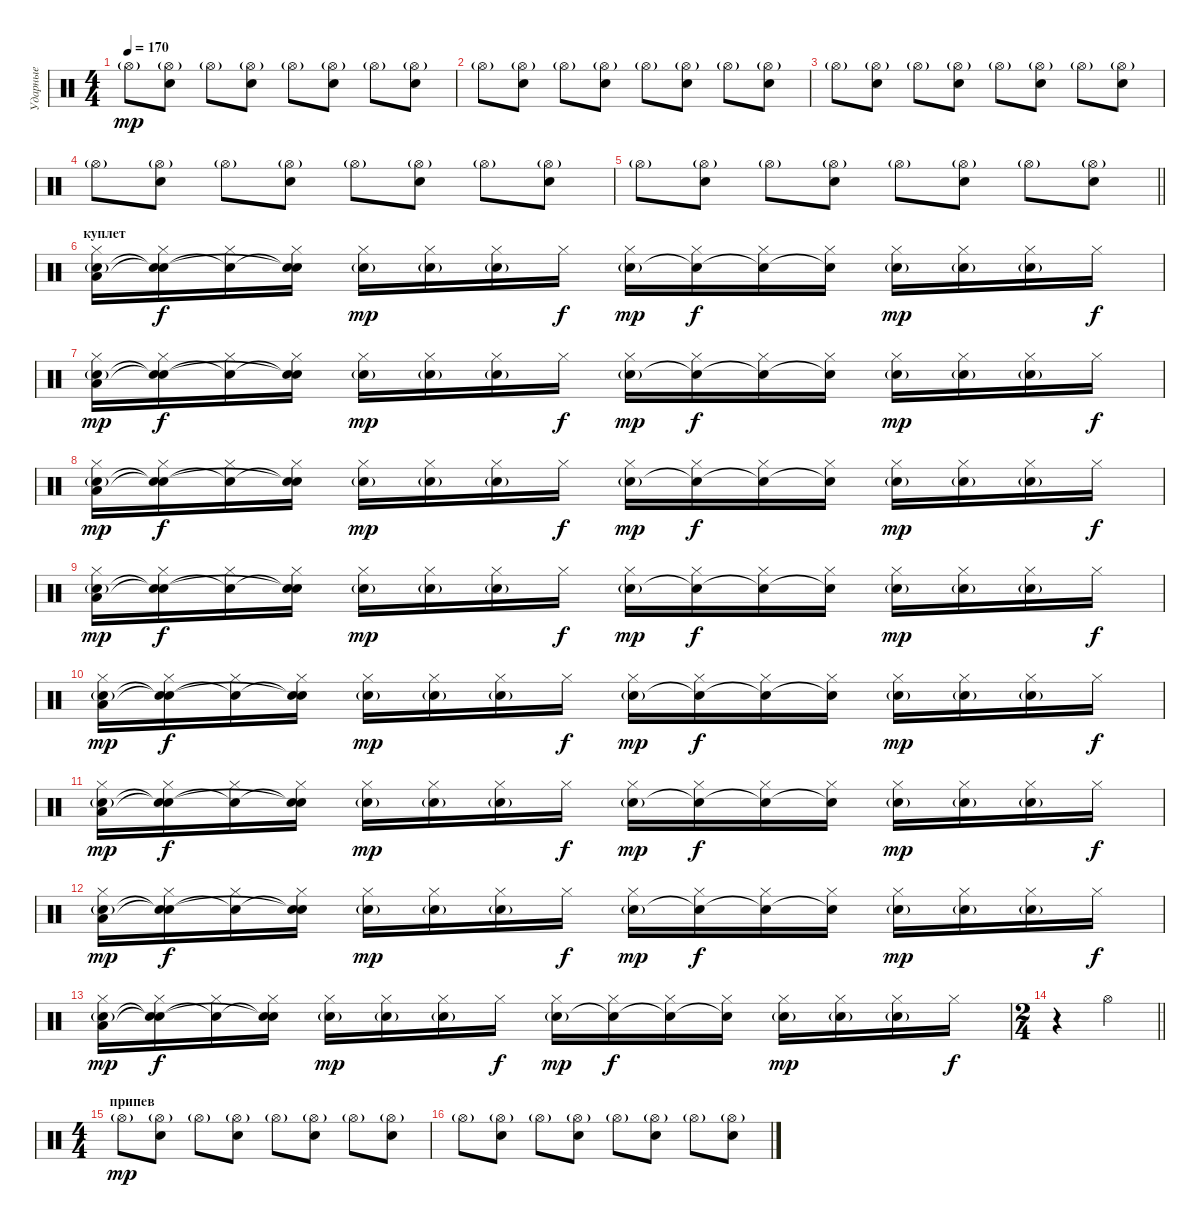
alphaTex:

\track ("Ударные" "Ударные") {instrument percussion}
\staff {score}
\articulation defaults
\ts (4 4)
\tempo 170
\clef neutral
\ks c "Hi-Hat (open)"{g}.8{dy mp}
("Hi-Hat (open)"{g} "Snare (hit) 2").8 "Hi-Hat (open)"{g}.8 ("Hi-Hat (open)"{g} "Snare (hit) 2").8 "Hi-Hat (open)"{g}.8 ("Hi-Hat (open)"{g} "Snare (hit) 2").8 "Hi-Hat (open)"{g}.8 ("Hi-Hat (open)"{g} "Snare (hit) 2").8 |
"Hi-Hat (open)"{g}.8 ("Hi-Hat (open)"{g} "Snare (hit) 2").8 "Hi-Hat (open)"{g}.8 ("Hi-Hat (open)"{g} "Snare (hit) 2").8 "Hi-Hat (open)"{g}.8 ("Hi-Hat (open)"{g} "Snare (hit) 2").8 "Hi-Hat (open)"{g}.8 ("Hi-Hat (open)"{g} "Snare (hit) 2").8 |
"Hi-Hat (open)"{g}.8 ("Hi-Hat (open)"{g} "Snare (hit) 2").8 "Hi-Hat (open)"{g}.8 ("Hi-Hat (open)"{g} "Snare (hit) 2").8 "Hi-Hat (open)"{g}.8 ("Hi-Hat (open)"{g} "Snare (hit) 2").8 "Hi-Hat (open)"{g}.8 ("Hi-Hat (open)"{g} "Snare (hit) 2").8 |
"Hi-Hat (open)"{g}.8 ("Hi-Hat (open)"{g} "Snare (hit) 2").8 "Hi-Hat (open)"{g}.8 ("Hi-Hat (open)"{g} "Snare (hit) 2").8 "Hi-Hat (open)"{g}.8 ("Hi-Hat (open)"{g} "Snare (hit) 2").8 "Hi-Hat (open)"{g}.8 ("Hi-Hat (open)"{g} "Snare (hit) 2").8 |
\barLineRight lightlight "Hi-Hat (open)"{g}.8
("Hi-Hat (open)"{g} "Snare (hit) 2").8 "Hi-Hat (open)"{g}.8 ("Hi-Hat (open)"{g} "Snare (hit) 2").8 "Hi-Hat (open)"{g}.8 ("Hi-Hat (open)"{g} "Snare (hit) 2").8 "Hi-Hat (open)"{g}.8 ("Hi-Hat (open)"{g} "Snare (hit) 2").8 |
\section ("" "куплет")
("Hi-Hat (closed)" "Low Tom (hit)" "Snare (hit) 2"{g}).16 ("Hi-Hat (closed)" "Snare (hit)"{t} "Snare (hit)"{t}).16{dy f} ("Hi-Hat (closed)" "Snare (hit)"{t}).16 ("Hi-Hat (closed)" "Snare (hit) 2"{t} "Snare (hit)"{t}).16 ("Hi-Hat (closed)" "Snare (hit) 2"{g}).16{dy mp} ("Hi-Hat (closed)" "Snare (hit) 2"{g}).16 ("Hi-Hat (closed)" "Snare (hit) 2"{g}).16 "Hi-Hat (closed)".16{dy f} ("Hi-Hat (closed)" "Snare (hit) 2"{g}).16{dy mp} ("Hi-Hat (closed)" "Snare (hit) 2"{t}).16{dy f} ("Hi-Hat (closed)" "Snare (hit) 2"{t}).16 ("Hi-Hat (closed)" "Snare (hit) 2"{t}).16 ("Hi-Hat (closed)" "Snare (hit) 2"{g}).16{dy mp} ("Hi-Hat (closed)" "Snare (hit) 2"{g}).16 ("Hi-Hat (closed)" "Snare (hit) 2"{g}).16 "Hi-Hat (closed)".16{dy f} |
("Hi-Hat (closed)" "Low Tom (hit)" "Snare (hit) 2"{g}).16{dy mp} ("Hi-Hat (closed)" "Snare (hit)"{t} "Snare (hit)"{t}).16{dy f} ("Hi-Hat (closed)" "Snare (hit)"{t}).16 ("Hi-Hat (closed)" "Snare (hit) 2"{t} "Snare (hit)"{t}).16 ("Hi-Hat (closed)" "Snare (hit) 2"{g}).16{dy mp} ("Hi-Hat (closed)" "Snare (hit) 2"{g}).16 ("Hi-Hat (closed)" "Snare (hit) 2"{g}).16 "Hi-Hat (closed)".16{dy f} ("Hi-Hat (closed)" "Snare (hit) 2"{g}).16{dy mp} ("Hi-Hat (closed)" "Snare (hit) 2"{t}).16{dy f} ("Hi-Hat (closed)" "Snare (hit) 2"{t}).16 ("Hi-Hat (closed)" "Snare (hit) 2"{t}).16 ("Hi-Hat (closed)" "Snare (hit) 2"{g}).16{dy mp} ("Hi-Hat (closed)" "Snare (hit) 2"{g}).16 ("Hi-Hat (closed)" "Snare (hit) 2"{g}).16 "Hi-Hat (closed)".16{dy f} |
("Hi-Hat (closed)" "Low Tom (hit)" "Snare (hit) 2"{g}).16{dy mp} ("Hi-Hat (closed)" "Snare (hit)"{t} "Snare (hit)"{t}).16{dy f} ("Hi-Hat (closed)" "Snare (hit)"{t}).16 ("Hi-Hat (closed)" "Snare (hit) 2"{t} "Snare (hit)"{t}).16 ("Hi-Hat (closed)" "Snare (hit) 2"{g}).16{dy mp} ("Hi-Hat (closed)" "Snare (hit) 2"{g}).16 ("Hi-Hat (closed)" "Snare (hit) 2"{g}).16 "Hi-Hat (closed)".16{dy f} ("Hi-Hat (closed)" "Snare (hit) 2"{g}).16{dy mp} ("Hi-Hat (closed)" "Snare (hit) 2"{t}).16{dy f} ("Hi-Hat (closed)" "Snare (hit) 2"{t}).16 ("Hi-Hat (closed)" "Snare (hit) 2"{t}).16 ("Hi-Hat (closed)" "Snare (hit) 2"{g}).16{dy mp} ("Hi-Hat (closed)" "Snare (hit) 2"{g}).16 ("Hi-Hat (closed)" "Snare (hit) 2"{g}).16 "Hi-Hat (closed)".16{dy f} |
("Hi-Hat (closed)" "Low Tom (hit)" "Snare (hit) 2"{g}).16{dy mp} ("Hi-Hat (closed)" "Snare (hit)"{t} "Snare (hit)"{t}).16{dy f} ("Hi-Hat (closed)" "Snare (hit)"{t}).16 ("Hi-Hat (closed)" "Snare (hit) 2"{t} "Snare (hit)"{t}).16 ("Hi-Hat (closed)" "Snare (hit) 2"{g}).16{dy mp} ("Hi-Hat (closed)" "Snare (hit) 2"{g}).16 ("Hi-Hat (closed)" "Snare (hit) 2"{g}).16 "Hi-Hat (closed)".16{dy f} ("Hi-Hat (closed)" "Snare (hit) 2"{g}).16{dy mp} ("Hi-Hat (closed)" "Snare (hit) 2"{t}).16{dy f} ("Hi-Hat (closed)" "Snare (hit) 2"{t}).16 ("Hi-Hat (closed)" "Snare (hit) 2"{t}).16 ("Hi-Hat (closed)" "Snare (hit) 2"{g}).16{dy mp} ("Hi-Hat (closed)" "Snare (hit) 2"{g}).16 ("Hi-Hat (closed)" "Snare (hit) 2"{g}).16 "Hi-Hat (closed)".16{dy f} |
("Hi-Hat (closed)" "Low Tom (hit)" "Snare (hit) 2"{g}).16{dy mp} ("Hi-Hat (closed)" "Snare (hit)"{t} "Snare (hit)"{t}).16{dy f} ("Hi-Hat (closed)" "Snare (hit)"{t}).16 ("Hi-Hat (closed)" "Snare (hit) 2"{t} "Snare (hit)"{t}).16 ("Hi-Hat (closed)" "Snare (hit) 2"{g}).16{dy mp} ("Hi-Hat (closed)" "Snare (hit) 2"{g}).16 ("Hi-Hat (closed)" "Snare (hit) 2"{g}).16 "Hi-Hat (closed)".16{dy f} ("Hi-Hat (closed)" "Snare (hit) 2"{g}).16{dy mp} ("Hi-Hat (closed)" "Snare (hit) 2"{t}).16{dy f} ("Hi-Hat (closed)" "Snare (hit) 2"{t}).16 ("Hi-Hat (closed)" "Snare (hit) 2"{t}).16 ("Hi-Hat (closed)" "Snare (hit) 2"{g}).16{dy mp} ("Hi-Hat (closed)" "Snare (hit) 2"{g}).16 ("Hi-Hat (closed)" "Snare (hit) 2"{g}).16 "Hi-Hat (closed)".16{dy f} |
("Hi-Hat (closed)" "Low Tom (hit)" "Snare (hit) 2"{g}).16{dy mp} ("Hi-Hat (closed)" "Snare (hit)"{t} "Snare (hit)"{t}).16{dy f} ("Hi-Hat (closed)" "Snare (hit)"{t}).16 ("Hi-Hat (closed)" "Snare (hit) 2"{t} "Snare (hit)"{t}).16 ("Hi-Hat (closed)" "Snare (hit) 2"{g}).16{dy mp} ("Hi-Hat (closed)" "Snare (hit) 2"{g}).16 ("Hi-Hat (closed)" "Snare (hit) 2"{g}).16 "Hi-Hat (closed)".16{dy f} ("Hi-Hat (closed)" "Snare (hit) 2"{g}).16{dy mp} ("Hi-Hat (closed)" "Snare (hit) 2"{t}).16{dy f} ("Hi-Hat (closed)" "Snare (hit) 2"{t}).16 ("Hi-Hat (closed)" "Snare (hit) 2"{t}).16 ("Hi-Hat (closed)" "Snare (hit) 2"{g}).16{dy mp} ("Hi-Hat (closed)" "Snare (hit) 2"{g}).16 ("Hi-Hat (closed)" "Snare (hit) 2"{g}).16 "Hi-Hat (closed)".16{dy f} |
("Hi-Hat (closed)" "Low Tom (hit)" "Snare (hit) 2"{g}).16{dy mp} ("Hi-Hat (closed)" "Snare (hit)"{t} "Snare (hit)"{t}).16{dy f} ("Hi-Hat (closed)" "Snare (hit)"{t}).16 ("Hi-Hat (closed)" "Snare (hit) 2"{t} "Snare (hit)"{t}).16 ("Hi-Hat (closed)" "Snare (hit) 2"{g}).16{dy mp} ("Hi-Hat (closed)" "Snare (hit) 2"{g}).16 ("Hi-Hat (closed)" "Snare (hit) 2"{g}).16 "Hi-Hat (closed)".16{dy f} ("Hi-Hat (closed)" "Snare (hit) 2"{g}).16{dy mp} ("Hi-Hat (closed)" "Snare (hit) 2"{t}).16{dy f} ("Hi-Hat (closed)" "Snare (hit) 2"{t}).16 ("Hi-Hat (closed)" "Snare (hit) 2"{t}).16 ("Hi-Hat (closed)" "Snare (hit) 2"{g}).16{dy mp} ("Hi-Hat (closed)" "Snare (hit) 2"{g}).16 ("Hi-Hat (closed)" "Snare (hit) 2"{g}).16 "Hi-Hat (closed)".16{dy f} |
("Hi-Hat (closed)" "Low Tom (hit)" "Snare (hit) 2"{g}).16{dy mp} ("Hi-Hat (closed)" "Snare (hit)"{t} "Snare (hit)"{t}).16{dy f} ("Hi-Hat (closed)" "Snare (hit)"{t}).16 ("Hi-Hat (closed)" "Snare (hit) 2"{t} "Snare (hit)"{t}).16 ("Hi-Hat (closed)" "Snare (hit) 2"{g}).16{dy mp} ("Hi-Hat (closed)" "Snare (hit) 2"{g}).16 ("Hi-Hat (closed)" "Snare (hit) 2"{g}).16 "Hi-Hat (closed)".16{dy f} ("Hi-Hat (closed)" "Snare (hit) 2"{g}).16{dy mp} ("Hi-Hat (closed)" "Snare (hit) 2"{t}).16{dy f} ("Hi-Hat (closed)" "Snare (hit) 2"{t}).16 ("Hi-Hat (closed)" "Snare (hit) 2"{t}).16 ("Hi-Hat (closed)" "Snare (hit) 2"{g}).16{dy mp} ("Hi-Hat (closed)" "Snare (hit) 2"{g}).16 ("Hi-Hat (closed)" "Snare (hit) 2"{g}).16 "Hi-Hat (closed)".16{dy f} |
\ts (2 4)
\barLineRight lightlight
r.4 "Hi-Hat (open)".4 |
\ts (4 4)
\section ("" "припев")
"Hi-Hat (open)"{g}.8{dy mp} ("Hi-Hat (open)"{g} "Snare (hit) 2").8 "Hi-Hat (open)"{g}.8 ("Hi-Hat (open)"{g} "Snare (hit) 2").8 "Hi-Hat (open)"{g}.8 ("Hi-Hat (open)"{g} "Snare (hit) 2").8 "Hi-Hat (open)"{g}.8 ("Hi-Hat (open)"{g} "Snare (hit) 2").8 |
"Hi-Hat (open)"{g}.8 ("Hi-Hat (open)"{g} "Snare (hit) 2").8 "Hi-Hat (open)"{g}.8 ("Hi-Hat (open)"{g} "Snare (hit) 2").8 "Hi-Hat (open)"{g}.8 ("Hi-Hat (open)"{g} "Snare (hit) 2").8 "Hi-Hat (open)"{g}.8 ("Hi-Hat (open)"{g} "Snare (hit) 2").8
